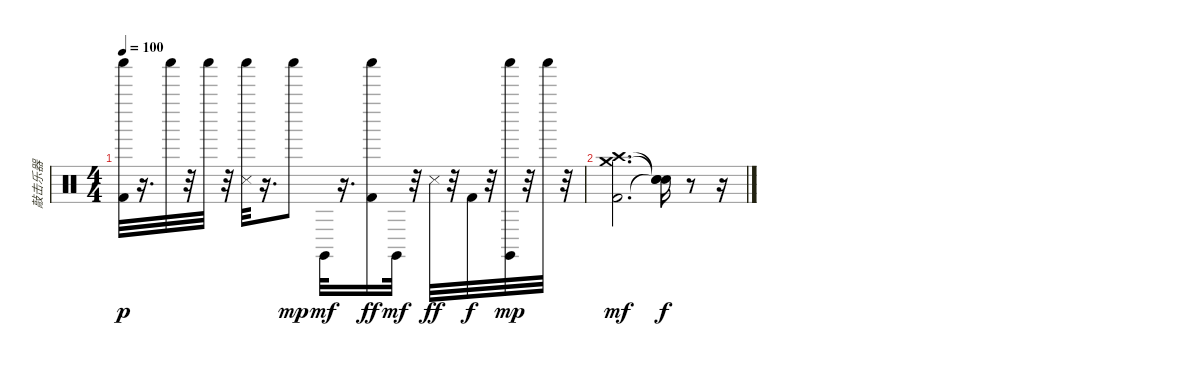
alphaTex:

\track ("敲击乐器" "敲击乐器") {instrument percussion}
\staff {score}
\articulation defaults
\ts (4 4)
\tempo 100
\clef neutral
\ks c
("Shaker (hit)" "Kick (hit) 2").32{dy p} r.16{d} "Shaker (hit)".32 r.32 "Shaker (hit)".32 r.32 ("Snare (side stick) 3" "Shaker (hit)").32 r.16{d} "Shaker (hit)".8{dy mp} "Claves (hit)".32{dy mf} r.16{d} ("Shaker (hit)" "Kick (hit) 2").16{dy ff} "Claves (hit)".32{dy mf} r.32 "Snare (side stick) 3".32{dy ff} r.32 "Kick (hit) 2".32{dy f} r.32 ("Claves (hit)" "Shaker (hit)").32{dy mp} r.32 "Shaker (hit)".32 r.32 |
("Kick (hit) 2" "Crash medium (hit)" "Crash high (hit)").2{d dy mf} ("Snare (hit)"{t} "Snare (hit)"{t} "Snare (hit)"{t}).16{dy f} r.8 r.16
